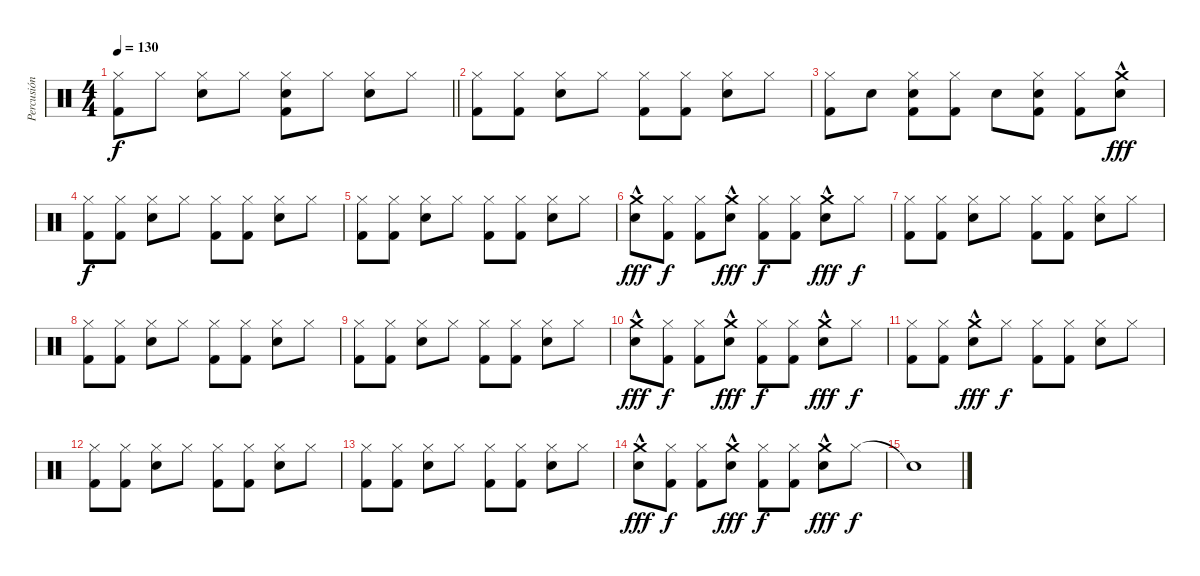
\track ("Percusión" "Percusión") {instrument percussion}
\staff {score}
\articulation defaults
\ts (4 4)
\tempo 130
\clef neutral
\barLineRight lightlight
\ks c
("Hi-Hat (closed)" "Kick (hit) 2").8{dy f} "Hi-Hat (closed)".8 ("Hi-Hat (closed)" "Electric Snare (hit)").8 "Hi-Hat (closed)".8 ("Hi-Hat (closed)" "Electric Snare (hit)" "Kick (hit) 2").8 "Hi-Hat (closed)".8 ("Hi-Hat (closed)" "Electric Snare (hit)").8 "Hi-Hat (closed)".8 |
\section ("" "")
("Hi-Hat (closed)" "Kick (hit) 2").8 ("Hi-Hat (closed)" "Kick (hit) 2").8 ("Hi-Hat (closed)" "Electric Snare (hit)").8 "Hi-Hat (closed)".8 ("Hi-Hat (closed)" "Kick (hit) 2").8 ("Hi-Hat (closed)" "Kick (hit) 2").8 ("Hi-Hat (closed)" "Electric Snare (hit)").8 "Hi-Hat (closed)".8 |
("Hi-Hat (closed)" "Kick (hit) 2").8 "Electric Snare (hit)".8 ("Hi-Hat (closed)" "Electric Snare (hit)" "Kick (hit) 2").8 ("Hi-Hat (closed)" "Kick (hit) 2").8 "Electric Snare (hit)".8 ("Hi-Hat (closed)" "Electric Snare (hit)" "Kick (hit) 2").8 ("Hi-Hat (closed)" "Kick (hit) 2").8 ("Crash medium (hit)"{hac} "Electric Snare (hit)").8{dy fff} |
("Hi-Hat (closed)" "Kick (hit) 2").8{dy f} ("Hi-Hat (closed)" "Kick (hit) 2").8 ("Hi-Hat (closed)" "Electric Snare (hit)").8 "Hi-Hat (closed)".8 ("Hi-Hat (closed)" "Kick (hit) 2").8 ("Hi-Hat (closed)" "Kick (hit) 2").8 ("Hi-Hat (closed)" "Electric Snare (hit)").8 "Hi-Hat (closed)".8 |
("Hi-Hat (closed)" "Kick (hit) 2").8 ("Hi-Hat (closed)" "Kick (hit) 2").8 ("Hi-Hat (closed)" "Electric Snare (hit)").8 "Hi-Hat (closed)".8 ("Hi-Hat (closed)" "Kick (hit) 2").8 ("Hi-Hat (closed)" "Kick (hit) 2").8 ("Hi-Hat (closed)" "Electric Snare (hit)").8 "Hi-Hat (closed)".8 |
("Crash medium (hit)"{hac} "Electric Snare (hit)").8{dy fff} ("Hi-Hat (closed)" "Kick (hit) 2").8{dy f} ("Hi-Hat (closed)" "Kick (hit) 2").8 ("Crash medium (hit)"{hac} "Electric Snare (hit)").8{dy fff} ("Hi-Hat (closed)" "Kick (hit) 2").8{dy f} ("Hi-Hat (closed)" "Kick (hit) 2").8 ("Crash medium (hit)"{hac} "Electric Snare (hit)").8{dy fff} "Hi-Hat (closed)".8{dy f} |
("Hi-Hat (closed)" "Kick (hit) 2").8 ("Hi-Hat (closed)" "Kick (hit) 2").8 ("Hi-Hat (closed)" "Electric Snare (hit)").8 "Hi-Hat (closed)".8 ("Hi-Hat (closed)" "Kick (hit) 2").8 ("Hi-Hat (closed)" "Kick (hit) 2").8 ("Hi-Hat (closed)" "Electric Snare (hit)").8 "Hi-Hat (closed)".8 |
("Hi-Hat (closed)" "Kick (hit) 2").8 ("Hi-Hat (closed)" "Kick (hit) 2").8 ("Hi-Hat (closed)" "Electric Snare (hit)").8 "Hi-Hat (closed)".8 ("Hi-Hat (closed)" "Kick (hit) 2").8 ("Hi-Hat (closed)" "Kick (hit) 2").8 ("Hi-Hat (closed)" "Electric Snare (hit)").8 "Hi-Hat (closed)".8 |
("Hi-Hat (closed)" "Kick (hit) 2").8 ("Hi-Hat (closed)" "Kick (hit) 2").8 ("Hi-Hat (closed)" "Electric Snare (hit)").8 "Hi-Hat (closed)".8 ("Hi-Hat (closed)" "Kick (hit) 2").8 ("Hi-Hat (closed)" "Kick (hit) 2").8 ("Hi-Hat (closed)" "Electric Snare (hit)").8 "Hi-Hat (closed)".8 |
("Crash medium (hit)"{hac} "Electric Snare (hit)"{hac}).8{dy fff} ("Hi-Hat (closed)" "Kick (hit) 2").8{dy f} ("Hi-Hat (closed)" "Kick (hit) 2").8 ("Crash medium (hit)"{hac} "Electric Snare (hit)"{hac}).8{dy fff} ("Hi-Hat (closed)" "Kick (hit) 2").8{dy f} ("Hi-Hat (closed)" "Kick (hit) 2").8 ("Crash medium (hit)"{hac} "Electric Snare (hit)"{hac}).8{dy fff} "Hi-Hat (closed)".8{dy f} |
("Hi-Hat (closed)" "Kick (hit) 2").8 ("Hi-Hat (closed)" "Kick (hit) 2").8 ("Crash medium (hit)"{hac} "Electric Snare (hit)").8{dy fff} "Hi-Hat (closed)".8{dy f} ("Hi-Hat (closed)" "Kick (hit) 2").8 ("Hi-Hat (closed)" "Kick (hit) 2").8 ("Hi-Hat (closed)" "Electric Snare (hit)").8 "Hi-Hat (closed)".8 |
("Hi-Hat (closed)" "Kick (hit) 2").8 ("Hi-Hat (closed)" "Kick (hit) 2").8 ("Hi-Hat (closed)" "Electric Snare (hit)").8 "Hi-Hat (closed)".8 ("Hi-Hat (closed)" "Kick (hit) 2").8 ("Hi-Hat (closed)" "Kick (hit) 2").8 ("Hi-Hat (closed)" "Electric Snare (hit)").8 "Hi-Hat (closed)".8 |
("Hi-Hat (closed)" "Kick (hit) 2").8 ("Hi-Hat (closed)" "Kick (hit) 2").8 ("Hi-Hat (closed)" "Electric Snare (hit)").8 "Hi-Hat (closed)".8 ("Hi-Hat (closed)" "Kick (hit) 2").8 ("Hi-Hat (closed)" "Kick (hit) 2").8 ("Hi-Hat (closed)" "Electric Snare (hit)").8 "Hi-Hat (closed)".8 |
("Crash medium (hit)"{hac} "Electric Snare (hit)").8{dy fff} ("Hi-Hat (closed)" "Kick (hit) 2").8{dy f} ("Hi-Hat (closed)" "Kick (hit) 2").8 ("Crash medium (hit)"{hac} "Electric Snare (hit)").8{dy fff} ("Hi-Hat (closed)" "Kick (hit) 2").8{dy f} ("Hi-Hat (closed)" "Kick (hit) 2").8 ("Crash medium (hit)"{hac} "Electric Snare (hit)").8{dy fff} "Hi-Hat (closed)".8{dy f} |
"Snare (hit)"{t}.1
